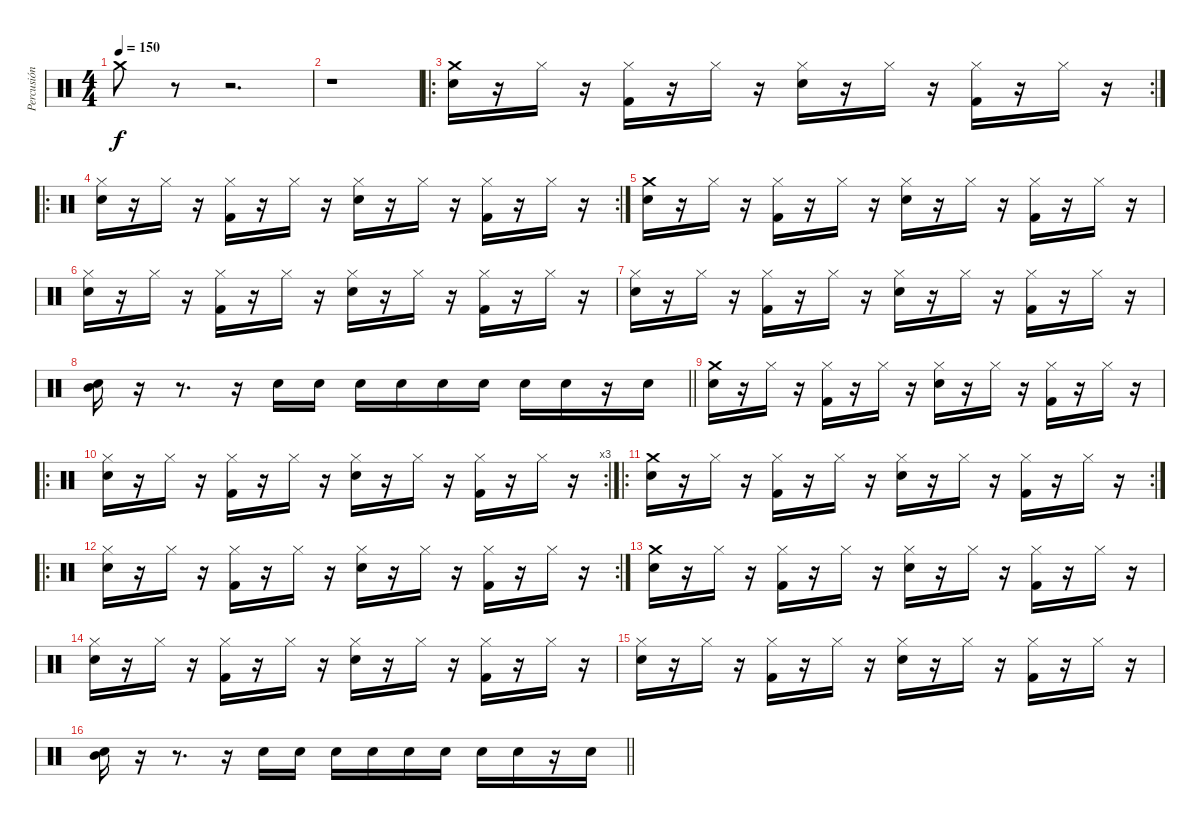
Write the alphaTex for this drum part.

\track ("Percusión" "Percusión") {instrument percussion}
\staff {score}
\articulation defaults
\ts (4 4)
\tempo 150
\clef neutral
\ks c "Crash medium (hit)".8{dy f}
r.8 r.2{d} |
r.1 |
\ro
\rc 2
("Crash medium (hit)" "Snare (hit) 2").16 r.16 "Hi-Hat (closed)".16 r.16 ("Hi-Hat (closed)" "Kick (hit) 2").16 r.16 "Hi-Hat (closed)".16 r.16 ("Hi-Hat (closed)" "Snare (hit) 2").16 r.16 "Hi-Hat (closed)".16 r.16 ("Hi-Hat (closed)" "Kick (hit) 2").16 r.16 "Hi-Hat (closed)".16 r.16 |
\ro
\rc 2
("Hi-Hat (closed)" "Snare (hit) 2").16 r.16 "Hi-Hat (closed)".16 r.16 ("Hi-Hat (closed)" "Kick (hit) 2").16 r.16 "Hi-Hat (closed)".16 r.16 ("Hi-Hat (closed)" "Snare (hit) 2").16 r.16 "Hi-Hat (closed)".16 r.16 ("Hi-Hat (closed)" "Kick (hit) 2").16 r.16 "Hi-Hat (closed)".16 r.16 |
("Crash medium (hit)" "Snare (hit) 2").16 r.16 "Hi-Hat (closed)".16 r.16 ("Hi-Hat (closed)" "Kick (hit) 2").16 r.16 "Hi-Hat (closed)".16 r.16 ("Hi-Hat (closed)" "Snare (hit) 2").16 r.16 "Hi-Hat (closed)".16 r.16 ("Hi-Hat (closed)" "Kick (hit) 2").16 r.16 "Hi-Hat (closed)".16 r.16 |
("Hi-Hat (closed)" "Snare (hit) 2").16 r.16 "Hi-Hat (closed)".16 r.16 ("Hi-Hat (closed)" "Kick (hit) 2").16 r.16 "Hi-Hat (closed)".16 r.16 ("Hi-Hat (closed)" "Snare (hit) 2").16 r.16 "Hi-Hat (closed)".16 r.16 ("Hi-Hat (closed)" "Kick (hit) 2").16 r.16 "Hi-Hat (closed)".16 r.16 |
("Hi-Hat (closed)" "Snare (hit) 2").16 r.16 "Hi-Hat (closed)".16 r.16 ("Hi-Hat (closed)" "Kick (hit) 2").16 r.16 "Hi-Hat (closed)".16 r.16 ("Hi-Hat (closed)" "Snare (hit) 2").16 r.16 "Hi-Hat (closed)".16 r.16 ("Hi-Hat (closed)" "Kick (hit) 2").16 r.16 "Hi-Hat (closed)".16 r.16 |
\barLineRight lightlight
("Mid Tom (hit)" "Snare (hit) 2").16 r.16 r.8{d} r.16 "Snare (hit) 2".16 "Snare (hit) 2".16 "Snare (hit) 2".16 "Snare (hit) 2".16 "Snare (hit) 2".16 "Snare (hit) 2".16 "Snare (hit) 2".16 "Snare (hit) 2".16 r.16 "Snare (hit) 2".16 |
("Crash medium (hit)" "Snare (hit) 2").16 r.16 "Hi-Hat (closed)".16 r.16 ("Hi-Hat (closed)" "Kick (hit) 2").16 r.16 "Hi-Hat (closed)".16 r.16 ("Hi-Hat (closed)" "Snare (hit) 2").16 r.16 "Hi-Hat (closed)".16 r.16 ("Hi-Hat (closed)" "Kick (hit) 2").16 r.16 "Hi-Hat (closed)".16 r.16 |
\ro
\rc 3
("Hi-Hat (closed)" "Snare (hit) 2").16 r.16 "Hi-Hat (closed)".16 r.16 ("Hi-Hat (closed)" "Kick (hit) 2").16 r.16 "Hi-Hat (closed)".16 r.16 ("Hi-Hat (closed)" "Snare (hit) 2").16 r.16 "Hi-Hat (closed)".16 r.16 ("Hi-Hat (closed)" "Kick (hit) 2").16 r.16 "Hi-Hat (closed)".16 r.16 |
\ro
\rc 2
("Crash medium (hit)" "Snare (hit) 2").16 r.16 "Hi-Hat (closed)".16 r.16 ("Hi-Hat (closed)" "Kick (hit) 2").16 r.16 "Hi-Hat (closed)".16 r.16 ("Hi-Hat (closed)" "Snare (hit) 2").16 r.16 "Hi-Hat (closed)".16 r.16 ("Hi-Hat (closed)" "Kick (hit) 2").16 r.16 "Hi-Hat (closed)".16 r.16 |
\ro
\rc 2
("Hi-Hat (closed)" "Snare (hit) 2").16 r.16 "Hi-Hat (closed)".16 r.16 ("Hi-Hat (closed)" "Kick (hit) 2").16 r.16 "Hi-Hat (closed)".16 r.16 ("Hi-Hat (closed)" "Snare (hit) 2").16 r.16 "Hi-Hat (closed)".16 r.16 ("Hi-Hat (closed)" "Kick (hit) 2").16 r.16 "Hi-Hat (closed)".16 r.16 |
("Crash medium (hit)" "Snare (hit) 2").16 r.16 "Hi-Hat (closed)".16 r.16 ("Hi-Hat (closed)" "Kick (hit) 2").16 r.16 "Hi-Hat (closed)".16 r.16 ("Hi-Hat (closed)" "Snare (hit) 2").16 r.16 "Hi-Hat (closed)".16 r.16 ("Hi-Hat (closed)" "Kick (hit) 2").16 r.16 "Hi-Hat (closed)".16 r.16 |
("Hi-Hat (closed)" "Snare (hit) 2").16 r.16 "Hi-Hat (closed)".16 r.16 ("Hi-Hat (closed)" "Kick (hit) 2").16 r.16 "Hi-Hat (closed)".16 r.16 ("Hi-Hat (closed)" "Snare (hit) 2").16 r.16 "Hi-Hat (closed)".16 r.16 ("Hi-Hat (closed)" "Kick (hit) 2").16 r.16 "Hi-Hat (closed)".16 r.16 |
("Hi-Hat (closed)" "Snare (hit) 2").16 r.16 "Hi-Hat (closed)".16 r.16 ("Hi-Hat (closed)" "Kick (hit) 2").16 r.16 "Hi-Hat (closed)".16 r.16 ("Hi-Hat (closed)" "Snare (hit) 2").16 r.16 "Hi-Hat (closed)".16 r.16 ("Hi-Hat (closed)" "Kick (hit) 2").16 r.16 "Hi-Hat (closed)".16 r.16 |
\barLineRight lightlight
("Mid Tom (hit)" "Snare (hit) 2").16 r.16 r.8{d} r.16 "Snare (hit) 2".16 "Snare (hit) 2".16 "Snare (hit) 2".16 "Snare (hit) 2".16 "Snare (hit) 2".16 "Snare (hit) 2".16 "Snare (hit) 2".16 "Snare (hit) 2".16 r.16 "Snare (hit) 2".16
